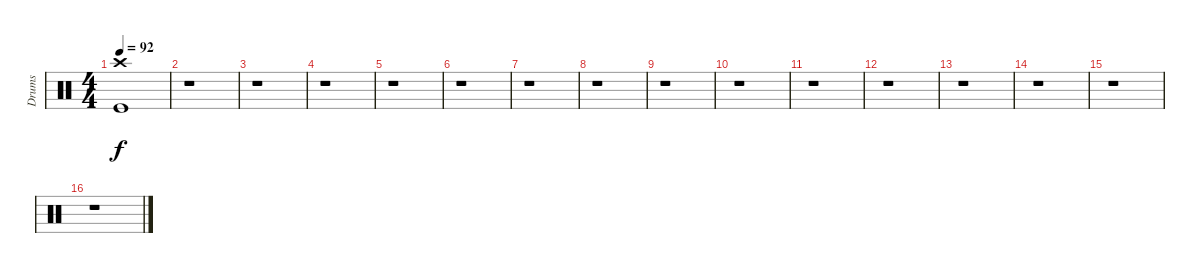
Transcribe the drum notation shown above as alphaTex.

\track ("Drums" "Drums") {instrument percussion}
\staff {score}
\articulation defaults
\ts (4 4)
\tempo 92
\clef neutral
\ks c
("Kick (hit)" "Crash high (hit)").1{dy f} |
r.1 |
r.1 |
r.1 |
r.1 |
r.1 |
r.1 |
r.1 |
r.1 |
r.1 |
r.1 |
r.1 |
r.1 |
r.1 |
r.1 |
r.1
